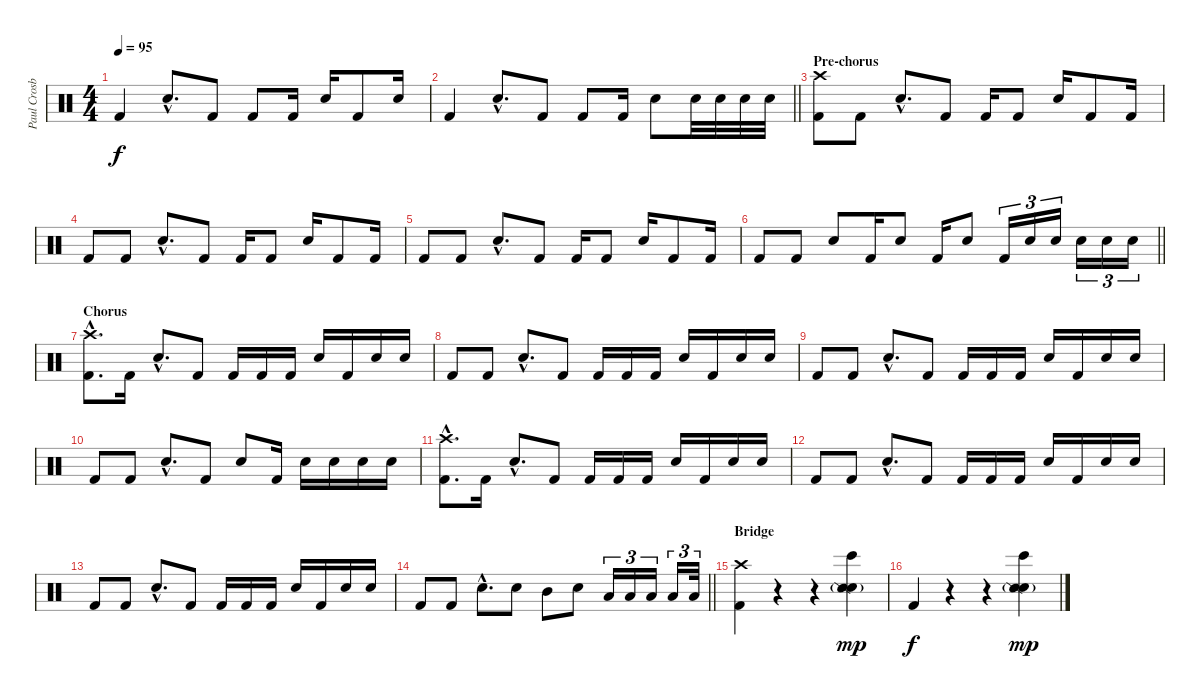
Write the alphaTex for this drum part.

\track ("Paul Crosby (Drums)" "Paul Crosb") {instrument percussion}
\staff {score}
\articulation defaults
\ts (4 4)
\tempo 95
\clef neutral
\ks c "Kick (hit) 2".4{dy f} "Electric Snare (hit)"{hac}.8{d} "Kick (hit) 2".8 "Kick (hit) 2".8 "Kick (hit) 2".16 "Electric Snare (hit)".16 "Kick (hit) 2".8 "Electric Snare (hit)".16
|
\barLineRight lightlight "Kick (hit) 2".4 "Electric Snare (hit)"{hac}.8{d} "Kick (hit) 2".8 "Kick (hit) 2".8 "Kick (hit) 2".16 "Electric Snare (hit)".8 "Electric Snare (hit)".32 "Electric Snare (hit)".32 "Electric Snare (hit)".32 "Electric Snare (hit)".32
|
\section ("" "Pre-chorus")
("Crash high (hit)" "Kick (hit) 2").8 "Kick (hit) 2".8 "Electric Snare (hit)"{hac}.8{d} "Kick (hit) 2".8 "Kick (hit) 2".16 "Kick (hit) 2".8 "Electric Snare (hit)".16 "Kick (hit) 2".8 "Kick (hit) 2".16 |
"Kick (hit) 2".8 "Kick (hit) 2".8 "Electric Snare (hit)"{hac}.8{d} "Kick (hit) 2".8 "Kick (hit) 2".16 "Kick (hit) 2".8 "Electric Snare (hit)".16 "Kick (hit) 2".8 "Kick (hit) 2".16 |
"Kick (hit) 2".8 "Kick (hit) 2".8 "Electric Snare (hit)"{hac}.8{d} "Kick (hit) 2".8 "Kick (hit) 2".16 "Kick (hit) 2".8 "Electric Snare (hit)".16 "Kick (hit) 2".8 "Kick (hit) 2".16 |
\barLineRight lightlight "Kick (hit) 2".8 "Kick (hit) 2".8 "Electric Snare (hit)".8 "Kick (hit) 2".16 "Electric Snare (hit)".8 "Kick (hit) 2".16 "Electric Snare (hit)".8 "Kick (hit) 2".16{tu (3 2)} "Electric Snare (hit)".16{tu (3 2)} "Electric Snare (hit)".16{tu (3 2)} "Electric Snare (hit)".16{tu (3 2)} "Electric Snare (hit)".16{tu (3 2)} "Electric Snare (hit)".16{tu (3 2)}
|
\section ("" "Chorus")
("Crash high (hit)"{hac} "Kick (hit) 2"{hac}).8{d} "Kick (hit) 2".16 "Electric Snare (hit)"{hac}.8{d} "Kick (hit) 2".8 "Kick (hit) 2".16 "Kick (hit) 2".16 "Kick (hit) 2".16 "Electric Snare (hit)".16 "Kick (hit) 2".16 "Electric Snare (hit)".16 "Electric Snare (hit)".16 |
"Kick (hit) 2".8 "Kick (hit) 2".8 "Electric Snare (hit)"{hac}.8{d} "Kick (hit) 2".8 "Kick (hit) 2".16 "Kick (hit) 2".16 "Kick (hit) 2".16 "Electric Snare (hit)".16 "Kick (hit) 2".16 "Electric Snare (hit)".16 "Electric Snare (hit)".16 |
"Kick (hit) 2".8 "Kick (hit) 2".8 "Electric Snare (hit)"{hac}.8{d} "Kick (hit) 2".8 "Kick (hit) 2".16 "Kick (hit) 2".16 "Kick (hit) 2".16 "Electric Snare (hit)".16 "Kick (hit) 2".16 "Electric Snare (hit)".16 "Electric Snare (hit)".16 |
"Kick (hit) 2".8 "Kick (hit) 2".8 "Electric Snare (hit)"{hac}.8{d} "Kick (hit) 2".8 "Electric Snare (hit)".8 "Kick (hit) 2".16 "Electric Snare (hit)".16 "Electric Snare (hit)".16 "Electric Snare (hit)".16 "Electric Snare (hit)".16 |
("Crash high (hit)"{hac} "Kick (hit) 2"{hac}).8{d} "Kick (hit) 2".16 "Electric Snare (hit)"{hac}.8{d} "Kick (hit) 2".8 "Kick (hit) 2".16 "Kick (hit) 2".16 "Kick (hit) 2".16 "Electric Snare (hit)".16 "Kick (hit) 2".16 "Electric Snare (hit)".16 "Electric Snare (hit)".16 |
"Kick (hit) 2".8 "Kick (hit) 2".8 "Electric Snare (hit)"{hac}.8{d} "Kick (hit) 2".8 "Kick (hit) 2".16 "Kick (hit) 2".16 "Kick (hit) 2".16 "Electric Snare (hit)".16 "Kick (hit) 2".16 "Electric Snare (hit)".16 "Electric Snare (hit)".16 |
"Kick (hit) 2".8 "Kick (hit) 2".8 "Electric Snare (hit)"{hac}.8{d} "Kick (hit) 2".8 "Kick (hit) 2".16 "Kick (hit) 2".16 "Kick (hit) 2".16 "Electric Snare (hit)".16 "Kick (hit) 2".16 "Electric Snare (hit)".16 "Electric Snare (hit)".16 |
\barLineRight lightlight "Kick (hit) 2".8 "Kick (hit) 2".8 "Electric Snare (hit)"{hac}.8{d} "Electric Snare (hit)".8 "Mid Tom (hit)".8 "Electric Snare (hit)".8 "Low Tom (hit)".16{tu (3 2)} "Low Tom (hit)".16{tu (3 2)} "Low Tom (hit)".16{tu (3 2)} "Low Tom (hit)".16{tu (3 2)} "Low Tom (hit)".32{tu (3 2)}
|
\section ("" "Bridge")
("Crash high (hit)" "Kick (hit) 2").4 r.4 r.4 ("Snare (hit) 2"{g} "Bongo High (hit)" "Snare (side stick) 2").4{dy mp} |
"Kick (hit) 2".4{dy f} r.4 r.4 ("Snare (hit) 2"{g} "Bongo High (hit)" "Snare (side stick) 2").4{dy mp}
